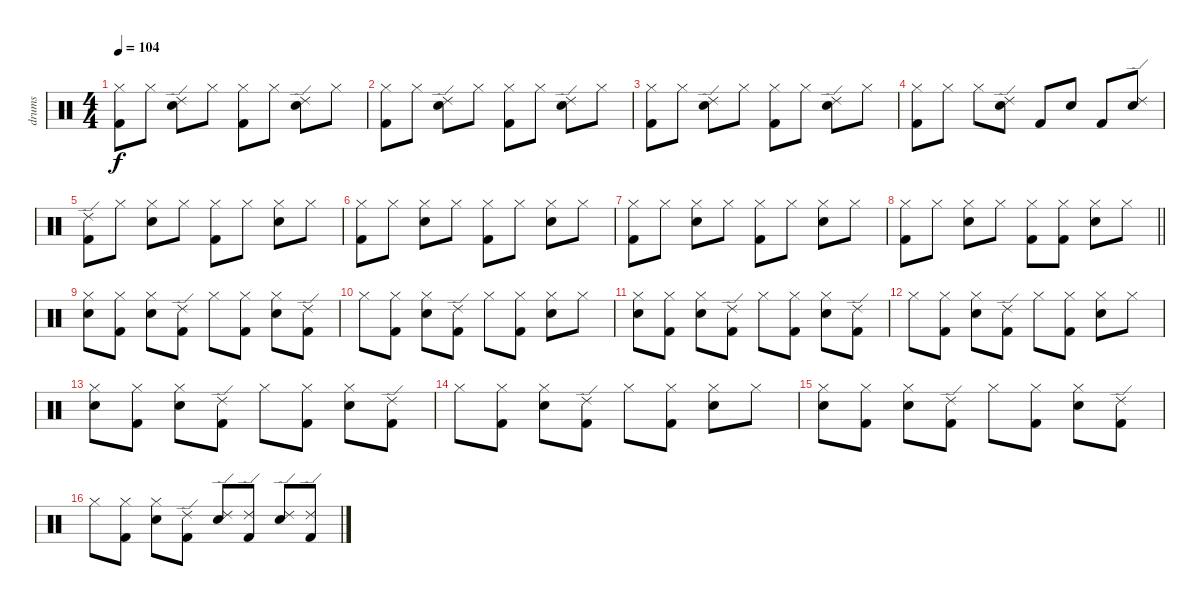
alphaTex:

\track ("drums" "drums") {instrument percussion}
\staff {score}
\articulation defaults
\ts (4 4)
\tempo 104
\clef neutral
\ks c
("Hi-Hat (closed)" "Kick (hit) 2").8{dy f} "Hi-Hat (closed)".8 ("Snare (hit) 2" "Ride (edge) 2").8 "Hi-Hat (closed)".8 ("Hi-Hat (closed)" "Kick (hit) 2").8 "Hi-Hat (closed)".8 ("Snare (hit) 2" "Ride (edge) 2").8 "Hi-Hat (closed)".8 |
("Hi-Hat (closed)" "Kick (hit) 2").8 "Hi-Hat (closed)".8 ("Snare (hit) 2" "Ride (edge) 2").8 "Hi-Hat (closed)".8 ("Hi-Hat (closed)" "Kick (hit) 2").8 "Hi-Hat (closed)".8 ("Snare (hit) 2" "Ride (edge) 2").8 "Hi-Hat (closed)".8 |
("Hi-Hat (closed)" "Kick (hit) 2").8 "Hi-Hat (closed)".8 ("Snare (hit) 2" "Ride (edge) 2").8 "Hi-Hat (closed)".8 ("Hi-Hat (closed)" "Kick (hit) 2").8 "Hi-Hat (closed)".8 ("Snare (hit) 2" "Ride (edge) 2").8 "Hi-Hat (closed)".8 |
("Hi-Hat (closed)" "Kick (hit) 2").8 "Hi-Hat (closed)".8 "Hi-Hat (closed)".8 ("Snare (hit) 2" "Ride (edge) 2").8 "Kick (hit) 2".8 "Snare (hit) 2".8 "Kick (hit) 2".8 ("Snare (hit) 2" "Ride (edge) 2").8 |
("Kick (hit) 2" "Ride (edge) 2").8 "Hi-Hat (closed)".8 ("Hi-Hat (closed)" "Snare (hit) 2").8 "Hi-Hat (closed)".8 ("Hi-Hat (closed)" "Kick (hit) 2").8 "Hi-Hat (closed)".8 ("Hi-Hat (closed)" "Snare (hit) 2").8 "Hi-Hat (closed)".8 |
("Hi-Hat (closed)" "Kick (hit) 2").8 "Hi-Hat (closed)".8 ("Hi-Hat (closed)" "Snare (hit) 2").8 "Hi-Hat (closed)".8 ("Hi-Hat (closed)" "Kick (hit) 2").8 "Hi-Hat (closed)".8 ("Hi-Hat (closed)" "Snare (hit) 2").8 "Hi-Hat (closed)".8 |
("Hi-Hat (closed)" "Kick (hit) 2").8 "Hi-Hat (closed)".8 ("Hi-Hat (closed)" "Snare (hit) 2").8 "Hi-Hat (closed)".8 ("Hi-Hat (closed)" "Kick (hit) 2").8 "Hi-Hat (closed)".8 ("Hi-Hat (closed)" "Snare (hit) 2").8 "Hi-Hat (closed)".8 |
\barLineRight lightlight
("Hi-Hat (closed)" "Kick (hit) 2").8 "Hi-Hat (closed)".8 ("Hi-Hat (closed)" "Snare (hit) 2").8 "Hi-Hat (closed)".8 ("Hi-Hat (closed)" "Kick (hit) 2").8 ("Hi-Hat (closed)" "Kick (hit) 2").8 ("Hi-Hat (closed)" "Snare (hit) 2").8 "Hi-Hat (closed)".8 |
("Hi-Hat (closed)" "Snare (hit) 2").8 ("Hi-Hat (closed)" "Kick (hit) 2").8 ("Hi-Hat (closed)" "Snare (hit) 2").8 ("Kick (hit) 2" "Ride (edge) 2").8 "Hi-Hat (closed)".8 ("Hi-Hat (closed)" "Kick (hit) 2").8 ("Hi-Hat (closed)" "Snare (hit) 2").8 ("Kick (hit) 2" "Ride (edge) 2").8 |
"Hi-Hat (closed)".8 ("Hi-Hat (closed)" "Kick (hit) 2").8 ("Hi-Hat (closed)" "Snare (hit) 2").8 ("Kick (hit) 2" "Ride (edge) 2").8 "Hi-Hat (closed)".8 ("Hi-Hat (closed)" "Kick (hit) 2").8 ("Hi-Hat (closed)" "Snare (hit) 2").8 "Hi-Hat (closed)".8 |
("Hi-Hat (closed)" "Snare (hit) 2").8 ("Hi-Hat (closed)" "Kick (hit) 2").8 ("Hi-Hat (closed)" "Snare (hit) 2").8 ("Kick (hit) 2" "Ride (edge) 2").8 "Hi-Hat (closed)".8 ("Hi-Hat (closed)" "Kick (hit) 2").8 ("Hi-Hat (closed)" "Snare (hit) 2").8 ("Kick (hit) 2" "Ride (edge) 2").8 |
"Hi-Hat (closed)".8 ("Hi-Hat (closed)" "Kick (hit) 2").8 ("Hi-Hat (closed)" "Snare (hit) 2").8 ("Kick (hit) 2" "Ride (edge) 2").8 "Hi-Hat (closed)".8 ("Hi-Hat (closed)" "Kick (hit) 2").8 ("Hi-Hat (closed)" "Snare (hit) 2").8 "Hi-Hat (closed)".8 |
("Hi-Hat (closed)" "Snare (hit) 2").8 ("Hi-Hat (closed)" "Kick (hit) 2").8 ("Hi-Hat (closed)" "Snare (hit) 2").8 ("Kick (hit) 2" "Ride (edge) 2").8 "Hi-Hat (closed)".8 ("Hi-Hat (closed)" "Kick (hit) 2").8 ("Hi-Hat (closed)" "Snare (hit) 2").8 ("Kick (hit) 2" "Ride (edge) 2").8 |
"Hi-Hat (closed)".8 ("Hi-Hat (closed)" "Kick (hit) 2").8 ("Hi-Hat (closed)" "Snare (hit) 2").8 ("Kick (hit) 2" "Ride (edge) 2").8 "Hi-Hat (closed)".8 ("Hi-Hat (closed)" "Kick (hit) 2").8 ("Hi-Hat (closed)" "Snare (hit) 2").8 "Hi-Hat (closed)".8 |
("Hi-Hat (closed)" "Snare (hit) 2").8 ("Hi-Hat (closed)" "Kick (hit) 2").8 ("Hi-Hat (closed)" "Snare (hit) 2").8 ("Kick (hit) 2" "Ride (edge) 2").8 "Hi-Hat (closed)".8 ("Hi-Hat (closed)" "Kick (hit) 2").8 ("Hi-Hat (closed)" "Snare (hit) 2").8 ("Kick (hit) 2" "Ride (edge) 2").8 |
"Hi-Hat (closed)".8 ("Hi-Hat (closed)" "Kick (hit) 2").8 ("Hi-Hat (closed)" "Snare (hit) 2").8 ("Kick (hit) 2" "Ride (edge) 2").8 ("Snare (hit) 2" "Ride (edge) 2").8 ("Kick (hit) 2" "Ride (edge) 2").8 ("Snare (hit) 2" "Ride (edge) 2").8 ("Kick (hit) 2" "Ride (edge) 2").8
